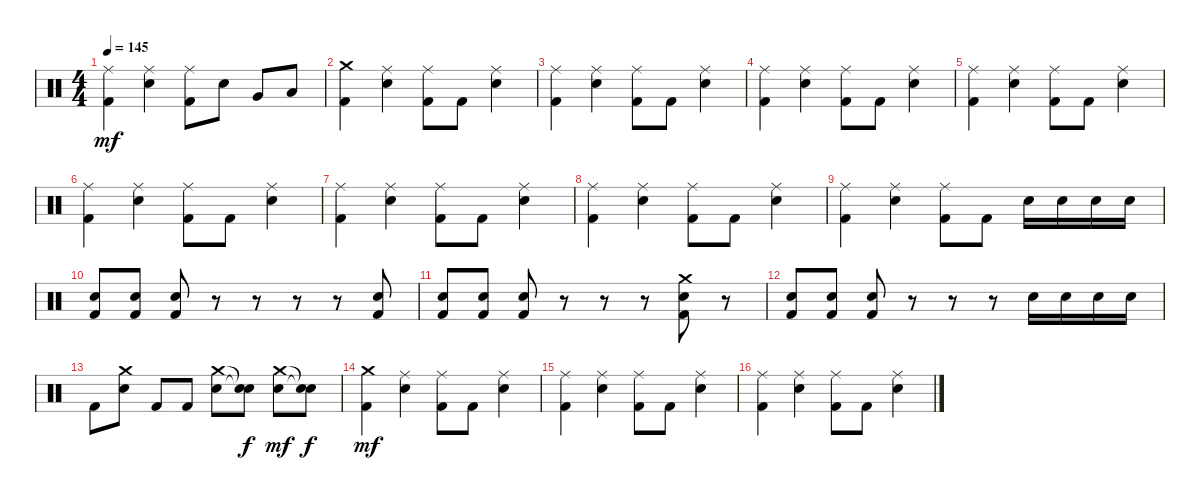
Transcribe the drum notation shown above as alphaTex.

\track "" {instrument percussion}
\staff {score}
\articulation defaults
\ts (4 4)
\tempo 145
\clef neutral
\ks c
("Ride (middle)" "Kick (hit) 2").4{dy mf} ("Ride (middle)" "Snare (hit) 2").4 ("Ride (middle)" "Kick (hit) 2").8 "Snare (hit) 2".8 "Very Low Tom (hit)".8 "Low Floor Tom (hit)".8 |
("Crash medium (hit)" "Kick (hit) 2").4 ("Ride (middle)" "Snare (hit) 2").4 ("Ride (middle)" "Kick (hit) 2").8 "Kick (hit) 2".8 ("Ride (middle)" "Snare (hit) 2").4 |
("Ride (middle)" "Kick (hit) 2").4 ("Ride (middle)" "Snare (hit) 2").4 ("Ride (middle)" "Kick (hit) 2").8 "Kick (hit) 2".8 ("Ride (middle)" "Snare (hit) 2").4 |
("Ride (middle)" "Kick (hit) 2").4 ("Ride (middle)" "Snare (hit) 2").4 ("Ride (middle)" "Kick (hit) 2").8 "Kick (hit) 2".8 ("Ride (middle)" "Snare (hit) 2").4 |
("Ride (middle)" "Kick (hit) 2").4 ("Ride (middle)" "Snare (hit) 2").4 ("Ride (middle)" "Kick (hit) 2").8 "Kick (hit) 2".8 ("Ride (middle)" "Snare (hit) 2").4 |
("Ride (middle)" "Kick (hit) 2").4 ("Ride (middle)" "Snare (hit) 2").4 ("Ride (middle)" "Kick (hit) 2").8 "Kick (hit) 2".8 ("Ride (middle)" "Snare (hit) 2").4 |
("Ride (middle)" "Kick (hit) 2").4 ("Ride (middle)" "Snare (hit) 2").4 ("Ride (middle)" "Kick (hit) 2").8 "Kick (hit) 2".8 ("Ride (middle)" "Snare (hit) 2").4 |
("Ride (middle)" "Kick (hit) 2").4 ("Ride (middle)" "Snare (hit) 2").4 ("Ride (middle)" "Kick (hit) 2").8 "Kick (hit) 2".8 ("Ride (middle)" "Snare (hit) 2").4 |
("Ride (middle)" "Kick (hit) 2").4 ("Ride (middle)" "Snare (hit) 2").4 ("Ride (middle)" "Kick (hit) 2").8 "Kick (hit) 2".8 "Snare (hit) 2".16 "Snare (hit) 2".16 "Snare (hit) 2".16 "Snare (hit) 2".16 |
("Snare (hit) 2" "Kick (hit) 2").8 ("Snare (hit) 2" "Kick (hit) 2").8 ("Snare (hit) 2" "Kick (hit) 2").8 r.8 r.8 r.8 r.8 ("Snare (hit) 2" "Kick (hit) 2").8 |
("Snare (hit) 2" "Kick (hit) 2").8 ("Snare (hit) 2" "Kick (hit) 2").8 ("Snare (hit) 2" "Kick (hit) 2").8 r.8 r.8 r.8 ("Crash medium (hit)" "Snare (hit) 2" "Kick (hit) 2").8 r.8 |
("Snare (hit) 2" "Kick (hit) 2").8 ("Snare (hit) 2" "Kick (hit) 2").8 ("Snare (hit) 2" "Kick (hit) 2").8 r.8 r.8 r.8 "Snare (hit) 2".16 "Snare (hit) 2".16 "Snare (hit) 2".16 "Snare (hit) 2".16 |
"Kick (hit) 2".8 ("Crash medium (hit)" "Snare (hit) 2").8 "Kick (hit) 2".8 "Kick (hit) 2".8 ("Crash medium (hit)" "Snare (hit) 2").8 ("Snare (hit)"{t} "Snare (hit)"{t}).8{dy f} ("Crash medium (hit)" "Snare (hit) 2").8{dy mf} ("Snare (hit)"{t} "Snare (hit)"{t}).8{dy f} |
("Crash medium (hit)" "Kick (hit) 2").4{dy mf} ("Ride (middle)" "Snare (hit) 2").4 ("Ride (middle)" "Kick (hit) 2").8 "Kick (hit) 2".8 ("Ride (middle)" "Snare (hit) 2").4 |
("Ride (middle)" "Kick (hit) 2").4 ("Ride (middle)" "Snare (hit) 2").4 ("Ride (middle)" "Kick (hit) 2").8 "Kick (hit) 2".8 ("Ride (middle)" "Snare (hit) 2").4 |
("Ride (middle)" "Kick (hit) 2").4 ("Ride (middle)" "Snare (hit) 2").4 ("Ride (middle)" "Kick (hit) 2").8 "Kick (hit) 2".8 ("Ride (middle)" "Snare (hit) 2").4
